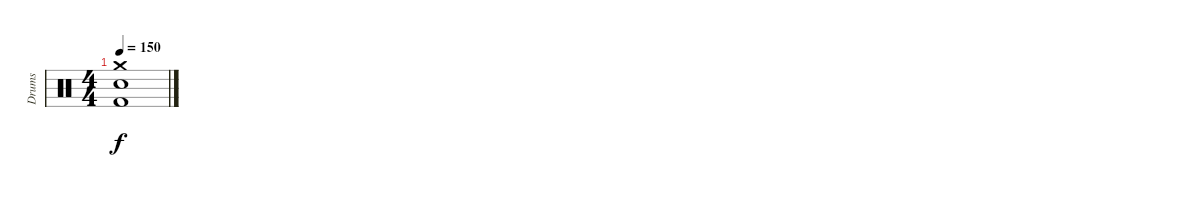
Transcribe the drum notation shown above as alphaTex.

\track ("Drums" "Drums") {instrument percussion}
\staff {score}
\articulation defaults
\ts (4 4)
\tempo 150
\clef neutral
\ks c
("Crash medium (hit)" "Electric Snare (hit)" "Kick (hit) 2").1{dy f}
